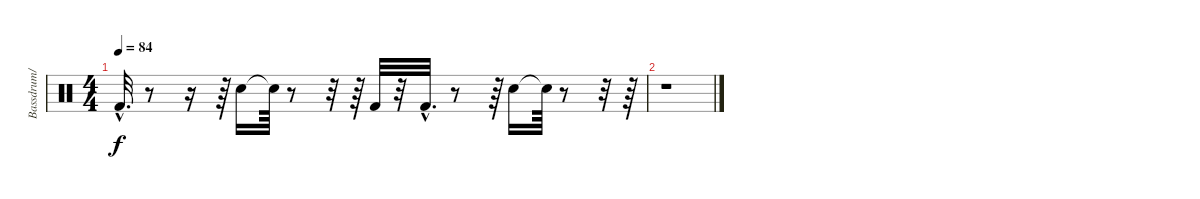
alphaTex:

\track ("Bassdrum/" "Bassdrum/") {instrument percussion}
\staff {score}
\articulation defaults
\ts (4 4)
\tempo 84
\clef neutral
\ks c "Kick (hit) 2"{hac}.32{d dy f}
r.8 r.16 r.64 "Snare (hit) 2".16 "Snare (hit)"{t}.64 r.8 r.32 r.64 "Kick (hit) 2".32 r.32 "Kick (hit) 2"{hac}.32{d} r.8 r.64 "Snare (hit) 2".16 "Snare (hit)"{t}.64 r.8 r.32 r.64 |
r.1
